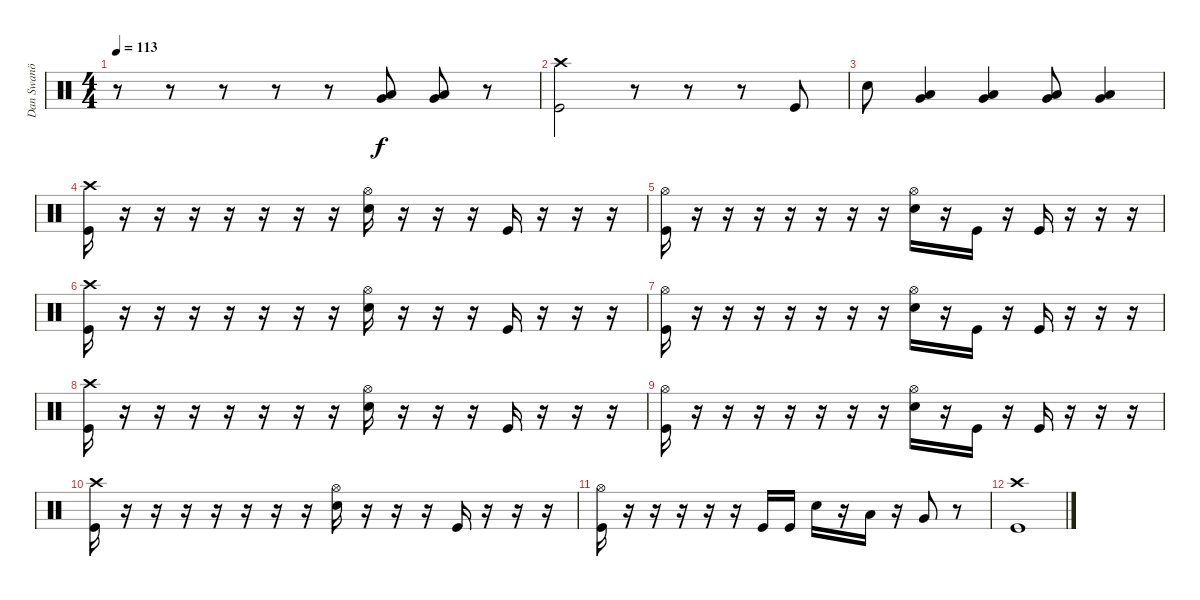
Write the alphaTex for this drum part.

\track ("Dan Swanö" "Dan Swanö") {instrument percussion}
\staff {score}
\articulation defaults
\ts (4 4)
\tempo 113
\clef neutral
\ks c
r.8{dy f} r.8 r.8 r.8 r.8 ("Very Low Tom (hit)" "Low Tom (hit)").8 ("Low Floor Tom (hit)" "Very Low Tom (hit)").8 r.8 |
("Crash high (hit)" "Kick (hit)").2 r.8 r.8 r.8 "Kick (hit)".8 |
"Snare (hit) 2".8 ("Very Low Tom (hit)" "Low Tom (hit)").4 ("Very Low Tom (hit)" "Low Tom (hit)").4 ("Very Low Tom (hit)" "Low Tom (hit)").8 ("Low Floor Tom (hit)" "Very Low Tom (hit)").4 |
("Crash high (hit)" "Kick (hit)").16 r.16 r.16 r.16 r.16 r.16 r.16 r.16 ("Hi-Hat (open)" "Snare (hit) 2").16 r.16 r.16 r.16 "Kick (hit)".16 r.16 r.16 r.16 |
("Hi-Hat (open)" "Kick (hit)").16 r.16 r.16 r.16 r.16 r.16 r.16 r.16 ("Hi-Hat (open)" "Snare (hit) 2").16 r.16 "Kick (hit)".16 r.16 "Kick (hit)".16 r.16 r.16 r.16 |
("Crash high (hit)" "Kick (hit)").16 r.16 r.16 r.16 r.16 r.16 r.16 r.16 ("Hi-Hat (open)" "Snare (hit) 2").16 r.16 r.16 r.16 "Kick (hit)".16 r.16 r.16 r.16 |
("Hi-Hat (open)" "Kick (hit)").16 r.16 r.16 r.16 r.16 r.16 r.16 r.16 ("Hi-Hat (open)" "Snare (hit) 2").16 r.16 "Kick (hit)".16 r.16 "Kick (hit)".16 r.16 r.16 r.16 |
("Crash high (hit)" "Kick (hit)").16 r.16 r.16 r.16 r.16 r.16 r.16 r.16 ("Hi-Hat (open)" "Snare (hit) 2").16 r.16 r.16 r.16 "Kick (hit)".16 r.16 r.16 r.16 |
("Hi-Hat (open)" "Kick (hit)").16 r.16 r.16 r.16 r.16 r.16 r.16 r.16 ("Hi-Hat (open)" "Snare (hit) 2").16 r.16 "Kick (hit)".16 r.16 "Kick (hit)".16 r.16 r.16 r.16 |
("Crash high (hit)" "Kick (hit)").16 r.16 r.16 r.16 r.16 r.16 r.16 r.16 ("Hi-Hat (open)" "Snare (hit) 2").16 r.16 r.16 r.16 "Kick (hit)".16 r.16 r.16 r.16 |
("Hi-Hat (open)" "Kick (hit)").16 r.16 r.16 r.16 r.16 r.16 "Kick (hit)".16 "Kick (hit)".16 "Snare (hit) 2".16 r.16 "Low Tom (hit)".16 r.16 "Very Low Tom (hit)".8 r.8 |
("Crash high (hit)" "Kick (hit)").1
